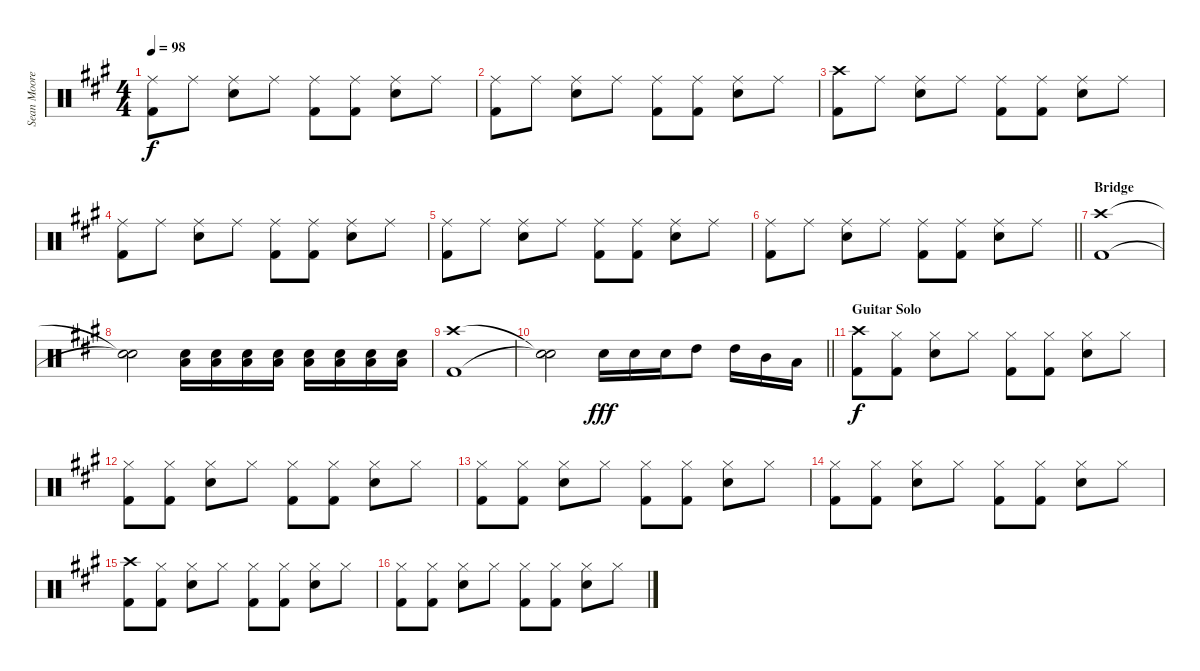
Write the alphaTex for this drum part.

\track ("Sean Moore (Drums)" "Sean Moore") {instrument percussion}
\staff {score}
\articulation defaults
\ts (4 4)
\tempo 98
\clef neutral
\ks a
("Ride (middle)" "Kick (hit) 2").8{dy f} "Ride (middle)".8 ("Ride (middle)" "Electric Snare (hit)").8 "Ride (middle)".8 ("Ride (middle)" "Kick (hit) 2").8 ("Ride (middle)" "Kick (hit) 2").8 ("Ride (middle)" "Electric Snare (hit)").8 "Ride (middle)".8 |
("Ride (middle)" "Kick (hit) 2").8 "Ride (middle)".8 ("Ride (middle)" "Electric Snare (hit)").8 "Ride (middle)".8 ("Ride (middle)" "Kick (hit) 2").8 ("Ride (middle)" "Kick (hit) 2").8 ("Ride (middle)" "Electric Snare (hit)").8 "Ride (middle)".8 |
("Crash high (hit)" "Kick (hit) 2").8 "Ride (middle)".8 ("Ride (middle)" "Electric Snare (hit)").8 "Ride (middle)".8 ("Ride (middle)" "Kick (hit) 2").8 ("Ride (middle)" "Kick (hit) 2").8 ("Ride (middle)" "Electric Snare (hit)").8 "Ride (middle)".8 |
("Ride (middle)" "Kick (hit) 2").8 "Ride (middle)".8 ("Ride (middle)" "Electric Snare (hit)").8 "Ride (middle)".8 ("Ride (middle)" "Kick (hit) 2").8 ("Ride (middle)" "Kick (hit) 2").8 ("Ride (middle)" "Electric Snare (hit)").8 "Ride (middle)".8 |
("Ride (middle)" "Kick (hit) 2").8 "Ride (middle)".8 ("Ride (middle)" "Electric Snare (hit)").8 "Ride (middle)".8 ("Ride (middle)" "Kick (hit) 2").8 ("Ride (middle)" "Kick (hit) 2").8 ("Ride (middle)" "Electric Snare (hit)").8 "Ride (middle)".8 |
\barLineRight lightlight
("Ride (middle)" "Kick (hit) 2").8 "Ride (middle)".8 ("Ride (middle)" "Electric Snare (hit)").8 "Ride (middle)".8 ("Ride (middle)" "Kick (hit) 2").8 ("Ride (middle)" "Kick (hit) 2").8 ("Ride (middle)" "Electric Snare (hit)").8 "Ride (middle)".8 |
\section ("" "Bridge")
("Crash high (hit)" "Kick (hit) 2").1 |
("Snare (hit)"{t} "Snare (hit)"{t}).2 ("Electric Snare (hit)" "Low Floor Tom (hit)").16 ("Electric Snare (hit)" "Low Floor Tom (hit)").16 ("Electric Snare (hit)" "Low Floor Tom (hit)").16 ("Electric Snare (hit)" "Low Floor Tom (hit)").16 ("Electric Snare (hit)" "Low Floor Tom (hit)").16 ("Electric Snare (hit)" "Low Floor Tom (hit)").16 ("Electric Snare (hit)" "Low Floor Tom (hit)").16 ("Electric Snare (hit)" "Low Floor Tom (hit)").16 |
("Crash high (hit)" "Kick (hit) 2").1 |
\barLineRight lightlight
("Snare (hit)"{t} "Snare (hit)"{t}).2 "Electric Snare (hit)".16{dy fff} "Electric Snare (hit)".16 "Electric Snare (hit)".16 "High Tom (hit)".8 "High Tom (hit)".16 "Mid Tom (hit)".16 "Low Tom (hit)".16 |
\section ("" "Guitar Solo")
("Crash high (hit)" "Kick (hit) 2").8{dy f} ("Hi-Hat (closed)" "Kick (hit) 2").8 ("Hi-Hat (closed)" "Electric Snare (hit)").8 "Hi-Hat (closed)".8 ("Hi-Hat (closed)" "Kick (hit) 2").8 ("Hi-Hat (closed)" "Kick (hit) 2").8 ("Hi-Hat (closed)" "Electric Snare (hit)").8 "Hi-Hat (closed)".8 |
("Hi-Hat (closed)" "Kick (hit) 2").8 ("Hi-Hat (closed)" "Kick (hit) 2").8 ("Hi-Hat (closed)" "Electric Snare (hit)").8 "Hi-Hat (closed)".8 ("Hi-Hat (closed)" "Kick (hit) 2").8 ("Hi-Hat (closed)" "Kick (hit) 2").8 ("Hi-Hat (closed)" "Electric Snare (hit)").8 "Hi-Hat (closed)".8 |
("Hi-Hat (closed)" "Kick (hit) 2").8 ("Hi-Hat (closed)" "Kick (hit) 2").8 ("Hi-Hat (closed)" "Electric Snare (hit)").8 "Hi-Hat (closed)".8 ("Hi-Hat (closed)" "Kick (hit) 2").8 ("Hi-Hat (closed)" "Kick (hit) 2").8 ("Hi-Hat (closed)" "Electric Snare (hit)").8 "Hi-Hat (closed)".8 |
("Hi-Hat (closed)" "Kick (hit) 2").8 ("Hi-Hat (closed)" "Kick (hit) 2").8 ("Hi-Hat (closed)" "Electric Snare (hit)").8 "Hi-Hat (closed)".8 ("Hi-Hat (closed)" "Kick (hit) 2").8 ("Hi-Hat (closed)" "Kick (hit) 2").8 ("Hi-Hat (closed)" "Electric Snare (hit)").8 "Hi-Hat (closed)".8 |
("Crash high (hit)" "Kick (hit) 2").8 ("Hi-Hat (closed)" "Kick (hit) 2").8 ("Hi-Hat (closed)" "Electric Snare (hit)").8 "Hi-Hat (closed)".8 ("Hi-Hat (closed)" "Kick (hit) 2").8 ("Hi-Hat (closed)" "Kick (hit) 2").8 ("Hi-Hat (closed)" "Electric Snare (hit)").8 "Hi-Hat (closed)".8 |
("Hi-Hat (closed)" "Kick (hit) 2").8 ("Hi-Hat (closed)" "Kick (hit) 2").8 ("Hi-Hat (closed)" "Electric Snare (hit)").8 "Hi-Hat (closed)".8 ("Hi-Hat (closed)" "Kick (hit) 2").8 ("Hi-Hat (closed)" "Kick (hit) 2").8 ("Hi-Hat (closed)" "Electric Snare (hit)").8 "Hi-Hat (closed)".8
